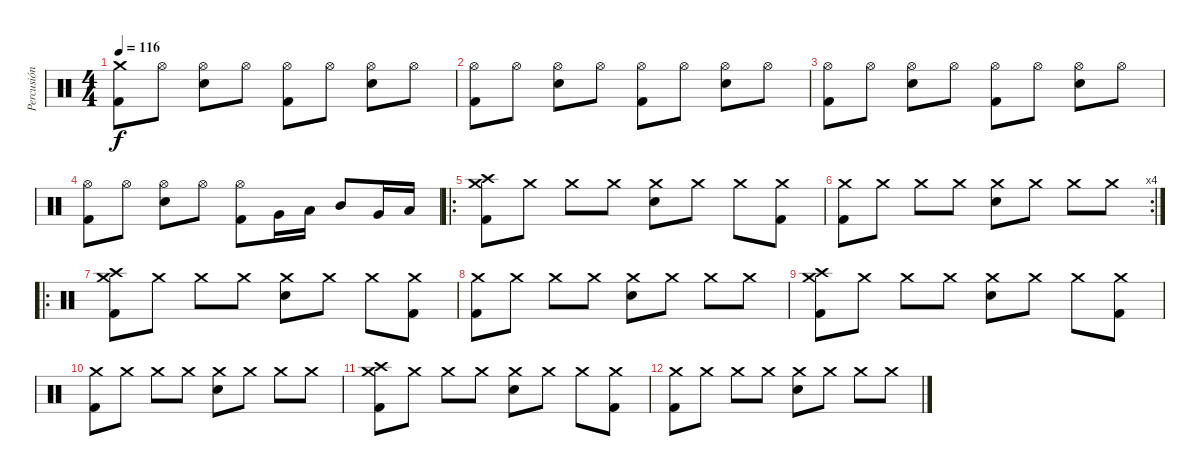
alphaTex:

\track ("Percusión" "Percusión") {instrument percussion}
\staff {score}
\articulation defaults
\ts (4 4)
\tempo 116
\clef neutral
\ks c
("Crash medium (hit)" "Kick (hit) 2").8{dy f} "Hi-Hat (open)".8 ("Hi-Hat (open)" "Electric Snare (hit)").8 "Hi-Hat (open)".8 ("Hi-Hat (open)" "Kick (hit) 2").8 "Hi-Hat (open)".8 ("Hi-Hat (open)" "Electric Snare (hit)").8 "Hi-Hat (open)".8 |
("Hi-Hat (open)" "Kick (hit) 2").8 "Hi-Hat (open)".8 ("Hi-Hat (open)" "Electric Snare (hit)").8 "Hi-Hat (open)".8 ("Hi-Hat (open)" "Kick (hit) 2").8 "Hi-Hat (open)".8 ("Hi-Hat (open)" "Electric Snare (hit)").8 "Hi-Hat (open)".8 |
("Hi-Hat (open)" "Kick (hit) 2").8 "Hi-Hat (open)".8 ("Hi-Hat (open)" "Electric Snare (hit)").8 "Hi-Hat (open)".8 ("Hi-Hat (open)" "Kick (hit) 2").8 "Hi-Hat (open)".8 ("Hi-Hat (open)" "Electric Snare (hit)").8 "Hi-Hat (open)".8 |
("Hi-Hat (open)" "Kick (hit) 2").8 "Hi-Hat (open)".8 ("Hi-Hat (open)" "Electric Snare (hit)").8 "Hi-Hat (open)".8 ("Hi-Hat (open)" "Kick (hit) 2").8 "Very Low Tom (hit)".16 "Low Tom (hit)".16 "Mid Tom (hit)".8 "Very Low Tom (hit)".16 "Low Tom (hit)".16 |
\ro
("Crash medium (hit)" "Crash high (hit)" "Kick (hit) 2").8 "Crash medium (hit)".8 "Crash medium (hit)".8 "Crash medium (hit)".8 ("Crash medium (hit)" "Electric Snare (hit)").8 "Crash medium (hit)".8 "Crash medium (hit)".8 ("Crash medium (hit)" "Kick (hit) 2").8 |
\rc 4
("Crash medium (hit)" "Kick (hit) 2").8 "Crash medium (hit)".8 "Crash medium (hit)".8 "Crash medium (hit)".8 ("Crash medium (hit)" "Electric Snare (hit)").8 "Crash medium (hit)".8 "Crash medium (hit)".8 "Crash medium (hit)".8 |
\ro
("Crash medium (hit)" "Crash high (hit)" "Kick (hit) 2").8{volume 8} "Crash medium (hit)".8 "Crash medium (hit)".8 "Crash medium (hit)".8 ("Crash medium (hit)" "Electric Snare (hit)").8 "Crash medium (hit)".8 "Crash medium (hit)".8 ("Crash medium (hit)" "Kick (hit) 2").8 |
("Crash medium (hit)" "Kick (hit) 2").8 "Crash medium (hit)".8 "Crash medium (hit)".8 "Crash medium (hit)".8 ("Crash medium (hit)" "Electric Snare (hit)").8 "Crash medium (hit)".8 "Crash medium (hit)".8 "Crash medium (hit)".8 |
("Crash medium (hit)" "Crash high (hit)" "Kick (hit) 2").8{volume 6} "Crash medium (hit)".8 "Crash medium (hit)".8 "Crash medium (hit)".8 ("Crash medium (hit)" "Electric Snare (hit)").8 "Crash medium (hit)".8 "Crash medium (hit)".8 ("Crash medium (hit)" "Kick (hit) 2").8 |
("Crash medium (hit)" "Kick (hit) 2").8{volume 5} "Crash medium (hit)".8 "Crash medium (hit)".8 "Crash medium (hit)".8 ("Crash medium (hit)" "Electric Snare (hit)").8 "Crash medium (hit)".8 "Crash medium (hit)".8 "Crash medium (hit)".8 |
("Crash medium (hit)" "Crash high (hit)" "Kick (hit) 2").8{volume 3} "Crash medium (hit)".8 "Crash medium (hit)".8 "Crash medium (hit)".8 ("Crash medium (hit)" "Electric Snare (hit)").8 "Crash medium (hit)".8 "Crash medium (hit)".8 ("Crash medium (hit)" "Kick (hit) 2").8 |
("Crash medium (hit)" "Kick (hit) 2").8{volume 2} "Crash medium (hit)".8 "Crash medium (hit)".8 "Crash medium (hit)".8 ("Crash medium (hit)" "Electric Snare (hit)").8 "Crash medium (hit)".8 "Crash medium (hit)".8 "Crash medium (hit)".8
